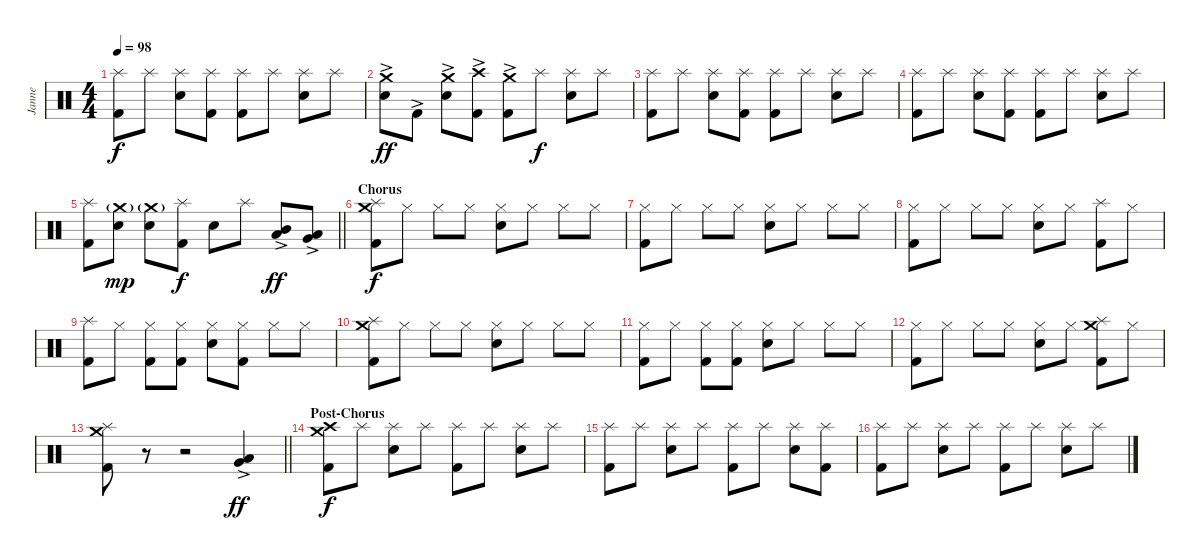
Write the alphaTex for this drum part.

\track ("Janne" "Janne") {instrument percussion}
\staff {score}
\articulation defaults
\ts (4 4)
\tempo 98
\clef neutral
\ks c
("Kick (hit) 2" "Splash (hit)").8{dy f} "Splash (hit)".8 ("Snare (hit) 2" "Splash (hit)").8 ("Kick (hit) 2" "Splash (hit)").8 ("Kick (hit) 2" "Splash (hit)").8 "Splash (hit)".8 ("Snare (hit) 2" "Splash (hit)").8 "Splash (hit)".8 |
("Snare (hit) 2"{ac} "Crash medium (hit)").8{dy ff} "Kick (hit) 2"{ac}.8 ("Snare (hit) 2"{ac} "Crash medium (hit)").8 ("Kick (hit) 2"{ac} "Crash high (hit)").8 ("Kick (hit) 2"{ac} "Crash medium (hit)").8 "Splash (hit)".8{dy f} ("Snare (hit) 2" "Splash (hit)").8 "Splash (hit)".8 |
("Kick (hit) 2" "Splash (hit)").8 "Splash (hit)".8 ("Snare (hit) 2" "Splash (hit)").8 ("Kick (hit) 2" "Splash (hit)").8 ("Kick (hit) 2" "Splash (hit)").8 "Splash (hit)".8 ("Snare (hit) 2" "Splash (hit)").8 "Splash (hit)".8 |
("Kick (hit) 2" "Splash (hit)").8 "Splash (hit)".8 ("Snare (hit) 2" "Splash (hit)").8 ("Kick (hit) 2" "Splash (hit)").8 ("Kick (hit) 2" "Splash (hit)").8 "Splash (hit)".8 ("Snare (hit) 2" "Splash (hit)").8 "Splash (hit)".8 |
\barLineRight lightlight
("Kick (hit) 2" "Splash (hit)").8 ("Snare (hit) 2" "Crash medium (hit)"{g}).8{dy mp} ("Snare (hit) 2" "Crash medium (hit)"{g}).8 ("Kick (hit) 2" "Splash (hit)").8{dy f} "Snare (hit) 2".8 "Splash (hit)".8 ("Mid Tom (hit)"{ac} "Low Tom (hit)"{ac}).8{dy ff} ("Low Tom (hit)"{ac} "Very Low Tom (hit)"{ac}).8 |
\section ("" "Chorus")
("Kick (hit) 2" "Crash medium (hit)" "Splash (hit)").8{dy f} "Hi-Hat (closed)".8 "Hi-Hat (closed)".8 "Hi-Hat (closed)".8 ("Snare (hit) 2" "Hi-Hat (closed)").8 "Hi-Hat (closed)".8 "Hi-Hat (closed)".8 "Hi-Hat (closed)".8 |
("Kick (hit) 2" "Hi-Hat (closed)").8 "Hi-Hat (closed)".8 "Hi-Hat (closed)".8 "Hi-Hat (closed)".8 ("Snare (hit) 2" "Hi-Hat (closed)").8 "Hi-Hat (closed)".8 "Hi-Hat (closed)".8 "Hi-Hat (closed)".8 |
("Kick (hit) 2" "Hi-Hat (closed)").8 "Hi-Hat (closed)".8 "Hi-Hat (closed)".8 "Hi-Hat (closed)".8 ("Snare (hit) 2" "Hi-Hat (closed)").8 "Hi-Hat (closed)".8 ("Kick (hit) 2" "Splash (hit)").8 "Hi-Hat (closed)".8 |
("Kick (hit) 2" "Splash (hit)").8 "Hi-Hat (closed)".8 ("Kick (hit) 2" "Hi-Hat (closed)").8 ("Kick (hit) 2" "Hi-Hat (closed)").8 ("Snare (hit) 2" "Hi-Hat (closed)").8 ("Kick (hit) 2" "Hi-Hat (closed)").8 "Hi-Hat (closed)".8 "Hi-Hat (closed)".8 |
("Kick (hit) 2" "Crash medium (hit)" "Splash (hit)").8 "Hi-Hat (closed)".8 "Hi-Hat (closed)".8 "Hi-Hat (closed)".8 ("Snare (hit) 2" "Hi-Hat (closed)").8 "Hi-Hat (closed)".8 "Hi-Hat (closed)".8 "Hi-Hat (closed)".8 |
("Kick (hit) 2" "Hi-Hat (closed)").8 "Hi-Hat (closed)".8 ("Kick (hit) 2" "Hi-Hat (closed)").8 ("Kick (hit) 2" "Hi-Hat (closed)").8 ("Snare (hit) 2" "Hi-Hat (closed)").8 "Hi-Hat (closed)".8 "Hi-Hat (closed)".8 "Hi-Hat (closed)".8 |
("Kick (hit) 2" "Hi-Hat (closed)").8 "Hi-Hat (closed)".8 "Hi-Hat (closed)".8 "Hi-Hat (closed)".8 ("Snare (hit) 2" "Hi-Hat (closed)").8 "Hi-Hat (closed)".8 ("Kick (hit) 2" "Splash (hit)" "Crash medium (hit)").8 "Hi-Hat (closed)".8 |
\barLineRight lightlight
("Kick (hit) 2" "Splash (hit)" "Crash medium (hit)").8 r.8 r.2 ("Low Tom (hit)"{ac} "Very Low Tom (hit)").4{dy ff} |
\section ("" "Post-Chorus")
("Kick (hit) 2" "Crash medium (hit)" "Crash high (hit)").8{dy f} "Splash (hit)".8 ("Snare (hit) 2" "Splash (hit)").8 "Splash (hit)".8 ("Kick (hit) 2" "Splash (hit)").8 "Splash (hit)".8 ("Snare (hit) 2" "Splash (hit)").8 "Splash (hit)".8 |
("Kick (hit) 2" "Splash (hit)").8 "Splash (hit)".8 ("Snare (hit) 2" "Splash (hit)").8 "Splash (hit)".8 ("Kick (hit) 2" "Splash (hit)").8 "Splash (hit)".8 ("Snare (hit) 2" "Splash (hit)").8 ("Kick (hit) 2" "Splash (hit)").8 |
("Kick (hit) 2" "Splash (hit)").8 "Splash (hit)".8 ("Snare (hit) 2" "Splash (hit)").8 "Splash (hit)".8 ("Kick (hit) 2" "Splash (hit)").8 "Splash (hit)".8 ("Snare (hit) 2" "Splash (hit)").8 "Splash (hit)".8
